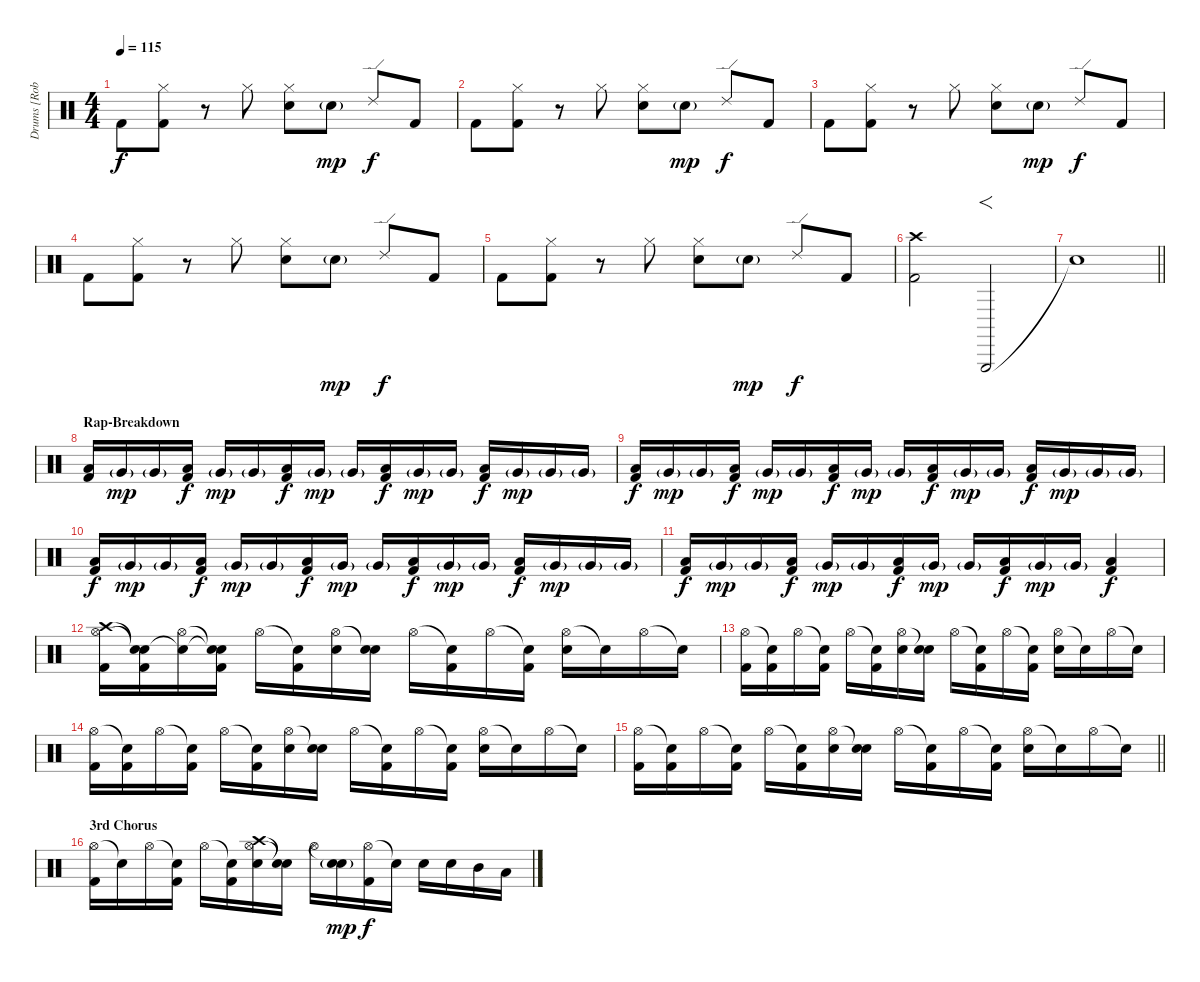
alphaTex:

\track ("Drums [Rob Bourdon]" "Drums [Rob") {instrument percussion}
\staff {score}
\articulation defaults
\ts (4 4)
\tempo 115
\clef neutral
\ks c "Kick (hit) 2".8{dy f volume 6}
("Hi-Hat (closed)" "Kick (hit) 2").8 r.8 "Hi-Hat (closed)".8 ("Hi-Hat (closed)" "Electric Snare (hit)").8{volume 6} "Electric Snare (hit)"{g}.8{dy mp} "Ride (edge) 2".8{dy f} "Kick (hit) 2".8 |
"Kick (hit) 2".8{volume 6} ("Hi-Hat (closed)" "Kick (hit) 2").8 r.8 "Hi-Hat (closed)".8 ("Hi-Hat (closed)" "Electric Snare (hit)").8{volume 6} "Electric Snare (hit)"{g}.8{dy mp} "Ride (edge) 2".8{dy f} "Kick (hit) 2".8 |
"Kick (hit) 2".8{volume 6} ("Hi-Hat (closed)" "Kick (hit) 2").8 r.8 "Hi-Hat (closed)".8 ("Hi-Hat (closed)" "Electric Snare (hit)").8{volume 6} "Electric Snare (hit)"{g}.8{dy mp} "Ride (edge) 2".8{dy f} "Kick (hit) 2".8 |
"Kick (hit) 2".8{volume 6} ("Hi-Hat (closed)" "Kick (hit) 2").8 r.8 "Hi-Hat (closed)".8 ("Hi-Hat (closed)" "Electric Snare (hit)").8{volume 6} "Electric Snare (hit)"{g}.8{dy mp} "Ride (edge) 2".8{dy f} "Kick (hit) 2".8 |
"Kick (hit) 2".8{volume 6} ("Hi-Hat (closed)" "Kick (hit) 2").8 r.8 "Hi-Hat (closed)".8 ("Hi-Hat (closed)" "Electric Snare (hit)").8{volume 6} "Electric Snare (hit)"{g}.8{dy mp} "Ride (edge) 2".8{dy f} "Kick (hit) 2".8 |
("Crash high (hit)" "Kick (hit) 2").2{volume 6} "Triangle (hit)".2{f} |
\barLineRight lightlight "Snare (hit)"{t}.1
|
\section ("" "Rap-Breakdown")
("Low Tom (hit)" "Kick (hit) 2").16{volume 10} "Very Low Tom (hit)"{g}.16{dy mp} "Very Low Tom (hit)"{g}.16 ("Low Tom (hit)" "Kick (hit) 2").16{dy f} "Very Low Tom (hit)"{g}.16{dy mp} "Very Low Tom (hit)"{g}.16 ("Low Tom (hit)" "Kick (hit) 2").16{dy f} "Very Low Tom (hit)"{g}.16{dy mp} "Very Low Tom (hit)"{g}.16 ("Low Tom (hit)" "Kick (hit) 2").16{dy f} "Very Low Tom (hit)"{g}.16{dy mp} "Very Low Tom (hit)"{g}.16 ("Low Tom (hit)" "Kick (hit) 2").16{dy f} "Very Low Tom (hit)"{g}.16{dy mp} "Very Low Tom (hit)"{g}.16 "Very Low Tom (hit)"{g}.16 |
("Low Tom (hit)" "Kick (hit) 2").16{dy f volume 10} "Very Low Tom (hit)"{g}.16{dy mp} "Very Low Tom (hit)"{g}.16 ("Low Tom (hit)" "Kick (hit) 2").16{dy f} "Very Low Tom (hit)"{g}.16{dy mp} "Very Low Tom (hit)"{g}.16 ("Low Tom (hit)" "Kick (hit) 2").16{dy f} "Very Low Tom (hit)"{g}.16{dy mp} "Very Low Tom (hit)"{g}.16 ("Low Tom (hit)" "Kick (hit) 2").16{dy f} "Very Low Tom (hit)"{g}.16{dy mp} "Very Low Tom (hit)"{g}.16 ("Low Tom (hit)" "Kick (hit) 2").16{dy f} "Very Low Tom (hit)"{g}.16{dy mp} "Very Low Tom (hit)"{g}.16 "Very Low Tom (hit)"{g}.16 |
("Low Tom (hit)" "Kick (hit) 2").16{dy f volume 10} "Very Low Tom (hit)"{g}.16{dy mp} "Very Low Tom (hit)"{g}.16 ("Low Tom (hit)" "Kick (hit) 2").16{dy f} "Very Low Tom (hit)"{g}.16{dy mp} "Very Low Tom (hit)"{g}.16 ("Low Tom (hit)" "Kick (hit) 2").16{dy f} "Very Low Tom (hit)"{g}.16{dy mp} "Very Low Tom (hit)"{g}.16 ("Low Tom (hit)" "Kick (hit) 2").16{dy f} "Very Low Tom (hit)"{g}.16{dy mp} "Very Low Tom (hit)"{g}.16 ("Low Tom (hit)" "Kick (hit) 2").16{dy f} "Very Low Tom (hit)"{g}.16{dy mp} "Very Low Tom (hit)"{g}.16 "Very Low Tom (hit)"{g}.16 |
("Low Tom (hit)" "Kick (hit) 2").16{dy f volume 10} "Very Low Tom (hit)"{g}.16{dy mp} "Very Low Tom (hit)"{g}.16 ("Low Tom (hit)" "Kick (hit) 2").16{dy f} "Very Low Tom (hit)"{g}.16{dy mp} "Very Low Tom (hit)"{g}.16 ("Low Tom (hit)" "Kick (hit) 2").16{dy f} "Very Low Tom (hit)"{g}.16{dy mp} "Very Low Tom (hit)"{g}.16 ("Low Tom (hit)" "Kick (hit) 2").16{dy f} "Very Low Tom (hit)"{g}.16{dy mp} "Very Low Tom (hit)"{g}.16 ("Low Tom (hit)" "Kick (hit) 2").4{dy f} |
("Crash high (hit)" "Hi-Hat (open)" "Kick (hit) 2").16 ("Snare (hit)"{t} "Snare (hit)"{t} "Kick (hit) 2").16 ("Snare (hit)"{t} "Hi-Hat (open)").16 ("Snare (hit)"{t} "Snare (hit)"{t} "Kick (hit) 2").16 "Hi-Hat (open)".16 ("Snare (hit)"{t} "Kick (hit) 2").16 ("Hi-Hat (open)" "Electric Snare (hit)").16 ("Snare (hit)"{t} "Electric Snare (hit)").16 "Hi-Hat (open)".16 ("Snare (hit)"{t} "Kick (hit) 2").16 "Hi-Hat (open)".16 ("Snare (hit)"{t} "Kick (hit) 2").16 ("Hi-Hat (open)" "Electric Snare (hit)").16 "Snare (hit)"{t}.16 "Hi-Hat (open)".16 "Snare (hit)"{t}.16 |
("Hi-Hat (open)" "Kick (hit) 2").16 ("Snare (hit)"{t} "Kick (hit) 2").16 "Hi-Hat (open)".16 ("Snare (hit)"{t} "Kick (hit) 2").16 "Hi-Hat (open)".16 ("Snare (hit)"{t} "Kick (hit) 2").16 ("Hi-Hat (open)" "Electric Snare (hit)").16 ("Snare (hit)"{t} "Electric Snare (hit)").16 "Hi-Hat (open)".16 ("Snare (hit)"{t} "Kick (hit) 2").16 "Hi-Hat (open)".16 ("Snare (hit)"{t} "Kick (hit) 2").16 ("Hi-Hat (open)" "Electric Snare (hit)").16 "Snare (hit)"{t}.16 "Hi-Hat (open)".16 "Snare (hit)"{t}.16 |
("Hi-Hat (open)" "Kick (hit) 2").16 ("Snare (hit)"{t} "Kick (hit) 2").16 "Hi-Hat (open)".16 ("Snare (hit)"{t} "Kick (hit) 2").16 "Hi-Hat (open)".16 ("Snare (hit)"{t} "Kick (hit) 2").16 ("Hi-Hat (open)" "Electric Snare (hit)").16 ("Snare (hit)"{t} "Electric Snare (hit)").16 "Hi-Hat (open)".16 ("Snare (hit)"{t} "Kick (hit) 2").16 "Hi-Hat (open)".16 ("Snare (hit)"{t} "Kick (hit) 2").16 ("Hi-Hat (open)" "Electric Snare (hit)").16 "Snare (hit)"{t}.16 "Hi-Hat (open)".16 "Snare (hit)"{t}.16 |
\barLineRight lightlight
("Hi-Hat (open)" "Kick (hit) 2").16 ("Snare (hit)"{t} "Kick (hit) 2").16 "Hi-Hat (open)".16 ("Snare (hit)"{t} "Kick (hit) 2").16 "Hi-Hat (open)".16 ("Snare (hit)"{t} "Kick (hit) 2").16 ("Hi-Hat (open)" "Electric Snare (hit)").16 ("Snare (hit)"{t} "Electric Snare (hit)").16 "Hi-Hat (open)".16 ("Snare (hit)"{t} "Kick (hit) 2").16 "Hi-Hat (open)".16 ("Snare (hit)"{t} "Kick (hit) 2").16 ("Hi-Hat (open)" "Electric Snare (hit)").16 "Snare (hit)"{t}.16 "Hi-Hat (open)".16 "Snare (hit)"{t}.16 |
\section ("" "3rd Chorus")
("Hi-Hat (open)" "Kick (hit) 2").16 "Snare (hit)"{t}.16 "Hi-Hat (open)".16 ("Snare (hit)"{t} "Kick (hit) 2").16 "Hi-Hat (open)".16 ("Snare (hit)"{t} "Kick (hit) 2").16 ("Crash high (hit)" "Hi-Hat (open)" "Electric Snare (hit)").16 ("Snare (hit)"{t} "Snare (hit)"{t}).16 "Hi-Hat (open)".16 ("Snare (hit)"{t} "Electric Snare (hit)"{g}).16{dy mp} ("Hi-Hat (open)" "Kick (hit) 2").16{dy f} "Snare (hit)"{t}.16 "Electric Snare (hit)".16 "Electric Snare (hit)".16 "Mid Tom (hit)".16 "Low Tom (hit)".16
